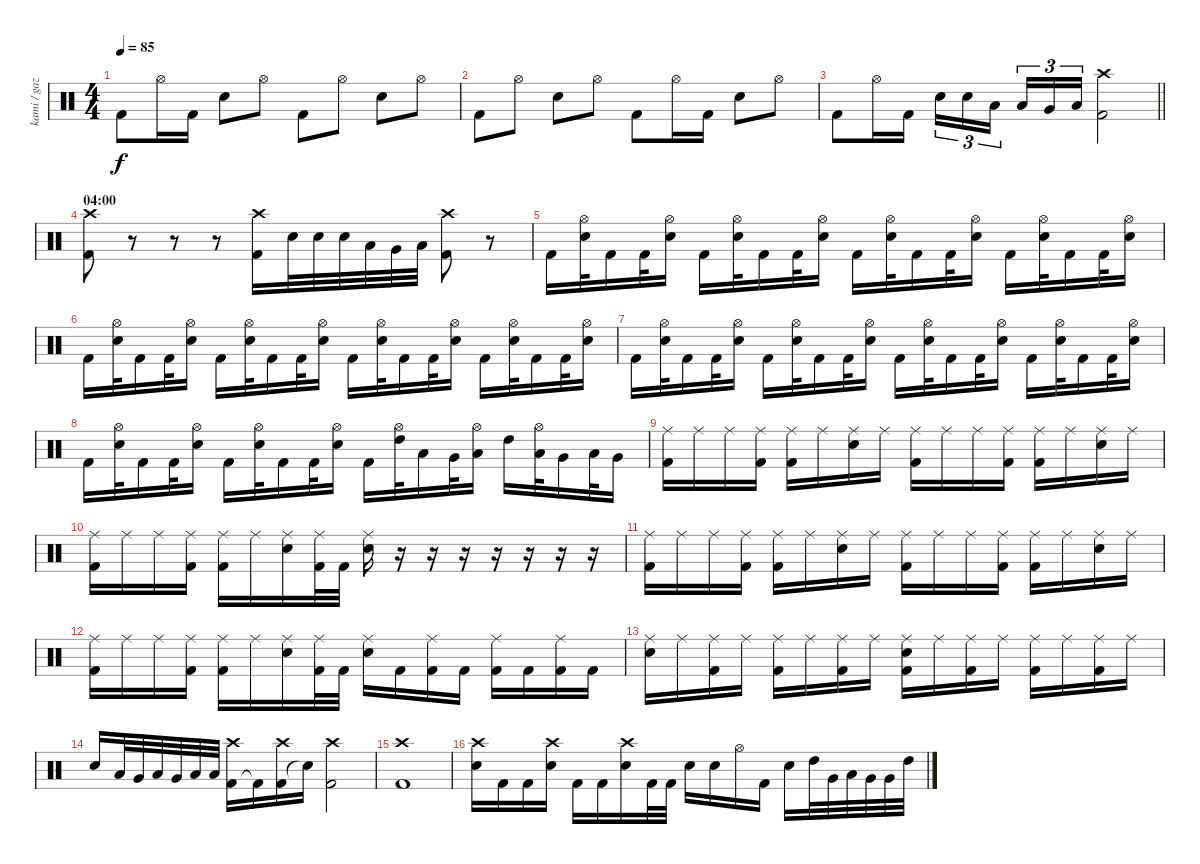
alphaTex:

\track ("kami / gaz (?)" "kami / gaz") {instrument percussion}
\staff {score}
\articulation defaults
\ts (4 4)
\tempo 85
\clef neutral
\ks c "Kick (hit) 2".8{dy f} "Hi-Hat (open)".16 "Kick (hit) 2".16 "Electric Snare (hit)".8 "Hi-Hat (open)".8 "Kick (hit) 2".8 "Hi-Hat (open)".8 "Electric Snare (hit)".8 "Hi-Hat (open)".8
|
"Kick (hit) 2".8 "Hi-Hat (open)".8 "Electric Snare (hit)".8 "Hi-Hat (open)".8 "Kick (hit) 2".8 "Hi-Hat (open)".16 "Kick (hit) 2".16 "Electric Snare (hit)".8 "Hi-Hat (open)".8 |
\barLineRight lightlight "Kick (hit) 2".8 "Hi-Hat (open)".16 "Kick (hit) 2".16 "Electric Snare (hit)".16{tu (3 2)} "Electric Snare (hit)".16{tu (3 2)} "Low Tom (hit)".16{tu (3 2)} "Low Tom (hit)".16{tu (3 2)} "Very Low Tom (hit)".16{tu (3 2)} "Low Floor Tom (hit)".16{tu (3 2)}
("Kick (hit) 2" "Crash high (hit)").2 |
\section ("" "04:00")
("Kick (hit) 2" "Crash high (hit)").8 r.8 r.8 r.8 ("Crash high (hit)" "Kick (hit) 2").16 "Electric Snare (hit)".32 "Electric Snare (hit)".32 "Electric Snare (hit)".32 "Low Tom (hit)".32 "Very Low Tom (hit)".32 "Low Floor Tom (hit)".32 ("Kick (hit) 2" "Crash high (hit)").8 r.8 |
"Kick (hit) 2".16 ("Electric Snare (hit)" "Hi-Hat (open)").32 "Kick (hit) 2".16 "Kick (hit) 2".32 ("Electric Snare (hit)" "Hi-Hat (open)").16 "Kick (hit) 2".16 ("Electric Snare (hit)" "Hi-Hat (open)").32 "Kick (hit) 2".16 "Kick (hit) 2".32 ("Electric Snare (hit)" "Hi-Hat (open)").16 "Kick (hit) 2".16 ("Electric Snare (hit)" "Hi-Hat (open)").32 "Kick (hit) 2".16 "Kick (hit) 2".32 ("Electric Snare (hit)" "Hi-Hat (open)").16 "Kick (hit) 2".16 ("Electric Snare (hit)" "Hi-Hat (open)").32 "Kick (hit) 2".16 "Kick (hit) 2".32 ("Electric Snare (hit)" "Hi-Hat (open)").16 |
"Kick (hit) 2".16 ("Electric Snare (hit)" "Hi-Hat (open)").32 "Kick (hit) 2".16 "Kick (hit) 2".32 ("Electric Snare (hit)" "Hi-Hat (open)").16 "Kick (hit) 2".16 ("Electric Snare (hit)" "Hi-Hat (open)").32 "Kick (hit) 2".16 "Kick (hit) 2".32 ("Electric Snare (hit)" "Hi-Hat (open)").16 "Kick (hit) 2".16 ("Electric Snare (hit)" "Hi-Hat (open)").32 "Kick (hit) 2".16 "Kick (hit) 2".32 ("Electric Snare (hit)" "Hi-Hat (open)").16 "Kick (hit) 2".16 ("Electric Snare (hit)" "Hi-Hat (open)").32 "Kick (hit) 2".16 "Kick (hit) 2".32 ("Electric Snare (hit)" "Hi-Hat (open)").16 |
"Kick (hit) 2".16 ("Electric Snare (hit)" "Hi-Hat (open)").32 "Kick (hit) 2".16 "Kick (hit) 2".32 ("Electric Snare (hit)" "Hi-Hat (open)").16 "Kick (hit) 2".16 ("Electric Snare (hit)" "Hi-Hat (open)").32 "Kick (hit) 2".16 "Kick (hit) 2".32 ("Electric Snare (hit)" "Hi-Hat (open)").16 "Kick (hit) 2".16 ("Electric Snare (hit)" "Hi-Hat (open)").32 "Kick (hit) 2".16 "Kick (hit) 2".32 ("Electric Snare (hit)" "Hi-Hat (open)").16 "Kick (hit) 2".16 ("Electric Snare (hit)" "Hi-Hat (open)").32 "Kick (hit) 2".16 "Kick (hit) 2".32 ("Electric Snare (hit)" "Hi-Hat (open)").16 |
"Kick (hit) 2".16 ("Electric Snare (hit)" "Hi-Hat (open)").32 "Kick (hit) 2".16 "Kick (hit) 2".32 ("Electric Snare (hit)" "Hi-Hat (open)").16 "Kick (hit) 2".16 ("Electric Snare (hit)" "Hi-Hat (open)").32 "Kick (hit) 2".16 "Kick (hit) 2".32 ("Electric Snare (hit)" "Hi-Hat (open)").16 "Kick (hit) 2".16 ("High Tom (hit)" "Hi-Hat (open)").32 "Low Tom (hit)".16 "Very Low Tom (hit)".32 ("Low Tom (hit)" "Hi-Hat (open)").16 "High Tom (hit)".16 ("Low Tom (hit)" "Hi-Hat (open)").32 "Very Low Tom (hit)".16 "Low Tom (hit)".32 "Very Low Tom (hit)".16 |
("Kick (hit) 2" "Ride (middle)").16 "Ride (middle)".16 "Ride (middle)".16 ("Kick (hit) 2" "Ride (middle)").16 ("Kick (hit) 2" "Ride (middle)").16 "Ride (middle)".16 ("Electric Snare (hit)" "Ride (middle)").16 "Ride (middle)".16 ("Kick (hit) 2" "Ride (middle)").16 "Ride (middle)".16 "Ride (middle)".16 ("Kick (hit) 2" "Ride (middle)").16 ("Kick (hit) 2" "Ride (middle)").16 "Ride (middle)".16 ("Electric Snare (hit)" "Ride (middle)").16 "Ride (middle)".16 |
("Kick (hit) 2" "Ride (middle)").16 "Ride (middle)".16 "Ride (middle)".16 ("Kick (hit) 2" "Ride (middle)").16 ("Kick (hit) 2" "Ride (middle)").16 "Ride (middle)".16 ("Electric Snare (hit)" "Ride (middle)").16 ("Kick (hit) 2" "Ride (middle)").32 "Kick (hit) 2".32 ("Electric Snare (hit)" "Ride (middle)").16 r.16 r.16 r.16 r.16 r.16 r.16 r.16 |
("Kick (hit) 2" "Ride (middle)").16 "Ride (middle)".16 "Ride (middle)".16 ("Kick (hit) 2" "Ride (middle)").16 ("Kick (hit) 2" "Ride (middle)").16 "Ride (middle)".16 ("Electric Snare (hit)" "Ride (middle)").16 "Ride (middle)".16 ("Kick (hit) 2" "Ride (middle)").16 "Ride (middle)".16 "Ride (middle)".16 ("Kick (hit) 2" "Ride (middle)").16 ("Kick (hit) 2" "Ride (middle)").16 "Ride (middle)".16 ("Electric Snare (hit)" "Ride (middle)").16 "Ride (middle)".16 |
("Kick (hit) 2" "Ride (middle)").16 "Ride (middle)".16 "Ride (middle)".16 ("Kick (hit) 2" "Ride (middle)").16 ("Kick (hit) 2" "Ride (middle)").16 "Ride (middle)".16 ("Electric Snare (hit)" "Ride (middle)").16 ("Kick (hit) 2" "Ride (middle)").32 "Kick (hit) 2".32 ("Electric Snare (hit)" "Ride (middle)").16 "Kick (hit) 2".16 ("Kick (hit) 2" "Ride (middle)").16 "Kick (hit) 2".16 ("Kick (hit) 2" "Ride (middle)").16 "Kick (hit) 2".16 ("Kick (hit) 2" "Ride (middle)").16 "Kick (hit) 2".16 |
("Electric Snare (hit)" "Ride (middle)").16 "Ride (middle)".16 ("Kick (hit) 2" "Ride (middle)").16 "Ride (middle)".16 ("Kick (hit) 2" "Ride (middle)").16 "Ride (middle)".16 ("Kick (hit) 2" "Ride (middle)").16 "Ride (middle)".16 ("Kick (hit) 2" "Electric Snare (hit)" "Ride (middle)").16 "Ride (middle)".16 ("Kick (hit) 2" "Ride (middle)").16 "Ride (middle)".16 ("Kick (hit) 2" "Ride (middle)").16 "Ride (middle)".16 ("Kick (hit) 2" "Ride (middle)").16 "Ride (middle)".16 |
"Electric Snare (hit)".16 "Low Tom (hit)".32 "Very Low Tom (hit)".32 "Low Floor Tom (hit)".32 "Very Low Tom (hit)".32 "Low Floor Tom (hit)".32 "Low Tom (hit)".32 ("Kick (hit) 2" "Crash high (hit)").16 "Kick (hit) 2"{t}.16 ("Kick (hit) 2" "Crash high (hit)").16 "Snare (hit)"{t}.16 ("Kick (hit) 2" "Crash high (hit)").2 |
("Kick (hit) 2" "Crash high (hit)").1 |
("Electric Snare (hit)" "Crash high (hit)").16 "Kick (hit) 2".16 "Kick (hit) 2".16 ("Electric Snare (hit)" "Crash high (hit)").16 "Kick (hit) 2".16 "Kick (hit) 2".16 ("Electric Snare (hit)" "Crash high (hit)").16 "Kick (hit) 2".32 "Kick (hit) 2".32 "Electric Snare (hit)".16 "Electric Snare (hit)".16 "Hi-Hat (open)".16 "Kick (hit) 2".16 "Electric Snare (hit)".16 "High Tom (hit)".32 "Very Low Tom (hit)".32 "Low Floor Tom (hit)".32 "Very Low Tom (hit)".32 "Very Low Tom (hit)".32 "High Tom (hit)".32
